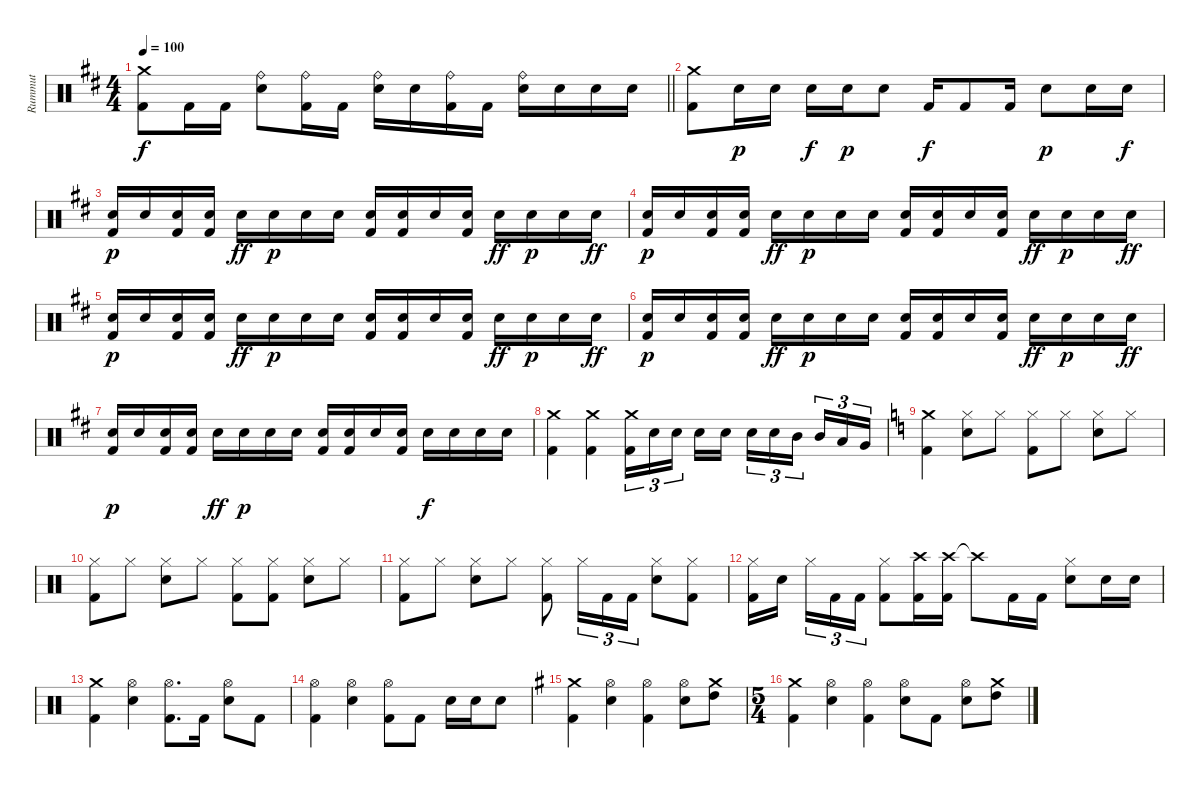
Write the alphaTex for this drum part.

\track ("Rummut" "Rummut") {instrument percussion}
\staff {score}
\articulation defaults
\ts (4 4)
\tempo 100
\clef neutral
\barLineRight lightlight
\ks d
("Crash medium (hit)" "Kick (hit) 2").8{dy f} "Kick (hit) 2".16 "Kick (hit) 2".16 ("Ride (bell)" "Snare (hit) 2").8 ("Ride (bell)" "Kick (hit) 2").16 "Kick (hit) 2".16 ("Ride (bell)" "Snare (hit) 2").16 "Snare (hit) 2".16 ("Ride (bell)" "Kick (hit) 2").16 "Kick (hit) 2".16 ("Ride (bell)" "Snare (hit) 2").16 "Snare (hit) 2".16 "Snare (hit) 2".16 "Snare (hit) 2".16 |
("Crash medium (hit)" "Kick (hit) 2").8 "Snare (hit) 2".16{dy p} "Snare (hit) 2".16 "Snare (hit) 2".16{dy f} "Snare (hit) 2".16{dy p} "Snare (hit) 2".8 "Kick (hit) 2".16{dy f} "Kick (hit) 2".8 "Kick (hit) 2".16 "Snare (hit) 2".8{dy p} "Snare (hit) 2".16 "Snare (hit) 2".16{dy f} |
("Snare (hit) 2" "Kick (hit) 2").16{dy p} "Snare (hit) 2".16 ("Snare (hit) 2" "Kick (hit) 2").16 ("Snare (hit) 2" "Kick (hit) 2").16 "Snare (hit) 2".16{dy ff} "Snare (hit) 2".16{dy p} "Snare (hit) 2".16 "Snare (hit) 2".16 ("Snare (hit) 2" "Kick (hit) 2").16 ("Snare (hit) 2" "Kick (hit) 2").16 "Snare (hit) 2".16 ("Snare (hit) 2" "Kick (hit) 2").16 "Snare (hit) 2".16{dy ff} "Snare (hit) 2".16{dy p} "Snare (hit) 2".16 "Snare (hit) 2".16{dy ff} |
("Snare (hit) 2" "Kick (hit) 2").16{dy p} "Snare (hit) 2".16 ("Snare (hit) 2" "Kick (hit) 2").16 ("Snare (hit) 2" "Kick (hit) 2").16 "Snare (hit) 2".16{dy ff} "Snare (hit) 2".16{dy p} "Snare (hit) 2".16 "Snare (hit) 2".16 ("Snare (hit) 2" "Kick (hit) 2").16 ("Snare (hit) 2" "Kick (hit) 2").16 "Snare (hit) 2".16 ("Snare (hit) 2" "Kick (hit) 2").16 "Snare (hit) 2".16{dy ff} "Snare (hit) 2".16{dy p} "Snare (hit) 2".16 "Snare (hit) 2".16{dy ff} |
("Snare (hit) 2" "Kick (hit) 2").16{dy p} "Snare (hit) 2".16 ("Snare (hit) 2" "Kick (hit) 2").16 ("Snare (hit) 2" "Kick (hit) 2").16 "Snare (hit) 2".16{dy ff} "Snare (hit) 2".16{dy p} "Snare (hit) 2".16 "Snare (hit) 2".16 ("Snare (hit) 2" "Kick (hit) 2").16 ("Snare (hit) 2" "Kick (hit) 2").16 "Snare (hit) 2".16 ("Snare (hit) 2" "Kick (hit) 2").16 "Snare (hit) 2".16{dy ff} "Snare (hit) 2".16{dy p} "Snare (hit) 2".16 "Snare (hit) 2".16{dy ff} |
("Snare (hit) 2" "Kick (hit) 2").16{dy p} "Snare (hit) 2".16 ("Snare (hit) 2" "Kick (hit) 2").16 ("Snare (hit) 2" "Kick (hit) 2").16 "Snare (hit) 2".16{dy ff} "Snare (hit) 2".16{dy p} "Snare (hit) 2".16 "Snare (hit) 2".16 ("Snare (hit) 2" "Kick (hit) 2").16 ("Snare (hit) 2" "Kick (hit) 2").16 "Snare (hit) 2".16 ("Snare (hit) 2" "Kick (hit) 2").16 "Snare (hit) 2".16{dy ff} "Snare (hit) 2".16{dy p} "Snare (hit) 2".16 "Snare (hit) 2".16{dy ff} |
("Snare (hit) 2" "Kick (hit) 2").16{dy p} "Snare (hit) 2".16 ("Snare (hit) 2" "Kick (hit) 2").16 ("Snare (hit) 2" "Kick (hit) 2").16 "Snare (hit) 2".16{dy ff} "Snare (hit) 2".16{dy p} "Snare (hit) 2".16 "Snare (hit) 2".16 ("Snare (hit) 2" "Kick (hit) 2").16 ("Snare (hit) 2" "Kick (hit) 2").16 "Snare (hit) 2".16 ("Snare (hit) 2" "Kick (hit) 2").16 "Snare (hit) 2".16{dy f} "Snare (hit) 2".16 "Snare (hit) 2".16 "Snare (hit) 2".16 |
("Crash medium (hit)" "Kick (hit) 2").4 ("Crash medium (hit)" "Kick (hit) 2").4 ("Crash medium (hit)" "Kick (hit) 2").16{tu (3 2)} "Snare (hit) 2".16{tu (3 2)} "Snare (hit) 2".16{tu (3 2) beam splitsecondary} "Snare (hit) 2".16 "Snare (hit) 2".16 "Snare (hit) 2".16{tu (3 2)} "Snare (hit) 2".16{tu (3 2)} "Mid Tom (hit)".16{tu (3 2) beam splitsecondary} "Mid Tom (hit)".16{tu (3 2)} "Low Tom (hit)".16{tu (3 2)} "Very Low Tom (hit)".16{tu (3 2)} |
\ks aminor
("Crash medium (hit)" "Kick (hit) 2").4 ("Hi-Hat (closed)" "Snare (hit) 2").8 "Hi-Hat (closed)".8 ("Hi-Hat (closed)" "Kick (hit) 2").8 "Hi-Hat (closed)".8 ("Hi-Hat (closed)" "Snare (hit) 2").8 "Hi-Hat (closed)".8 |
("Hi-Hat (closed)" "Kick (hit) 2").8 "Hi-Hat (closed)".8 ("Hi-Hat (closed)" "Snare (hit) 2").8 "Hi-Hat (closed)".8 ("Hi-Hat (closed)" "Kick (hit) 2").8 ("Hi-Hat (closed)" "Kick (hit) 2").8 ("Hi-Hat (closed)" "Snare (hit) 2").8 "Hi-Hat (closed)".8 |
("Hi-Hat (closed)" "Kick (hit) 2").8 "Hi-Hat (closed)".8 ("Hi-Hat (closed)" "Snare (hit) 2").8 "Hi-Hat (closed)".8 ("Hi-Hat (closed)" "Kick (hit) 2").8 "Hi-Hat (closed)".16{tu (3 2)} "Kick (hit) 2".16{tu (3 2)} "Kick (hit) 2".16{tu (3 2)} ("Hi-Hat (closed)" "Snare (hit) 2").8 ("Hi-Hat (closed)" "Kick (hit) 2").8 |
("Hi-Hat (closed)" "Kick (hit) 2").16 "Snare (hit) 2".16{beam splitsecondary} "Hi-Hat (closed)".16{tu (3 2)} "Kick (hit) 2".16{tu (3 2)} "Kick (hit) 2".16{tu (3 2)} ("Hi-Hat (closed)" "Kick (hit) 2").8 ("Crash high (hit)" "Kick (hit) 2").16 ("Crash high (hit)" "Kick (hit) 2").16 "Crash high (hit)"{t}.8 "Kick (hit) 2".16 "Kick (hit) 2".16 ("Hi-Hat (closed)" "Snare (hit) 2").8 "Snare (hit) 2".16 "Snare (hit) 2".16 |
("Crash medium (hit)" "Kick (hit) 2").4 ("Hi-Hat (open)" "Snare (hit) 2").4 ("Hi-Hat (open)" "Kick (hit) 2").8{d} "Kick (hit) 2".16 ("Hi-Hat (open)" "Snare (hit) 2").8 "Kick (hit) 2".8 |
("Hi-Hat (open)" "Kick (hit) 2").4 ("Hi-Hat (open)" "Snare (hit) 2").4 ("Hi-Hat (open)" "Kick (hit) 2").8 "Kick (hit) 2".8 "Snare (hit) 2".16 "Snare (hit) 2".16 "Snare (hit) 2".8 |
\ks g
("Crash medium (hit)" "Kick (hit) 2").4 ("Hi-Hat (open)" "Snare (hit) 2").4 ("Hi-Hat (open)" "Kick (hit) 2").4 ("Hi-Hat (open)" "Snare (hit) 2").8 ("Crash medium (hit)" "High Tom (hit)").8 |
\ts (5 4)
("Crash medium (hit)" "Kick (hit) 2").4 ("Hi-Hat (open)" "Snare (hit) 2").4 ("Hi-Hat (open)" "Kick (hit) 2").4 ("Hi-Hat (open)" "Snare (hit) 2").8 "Kick (hit) 2".8 ("Hi-Hat (open)" "Snare (hit) 2").8 ("Crash medium (hit)" "High Tom (hit)").8
